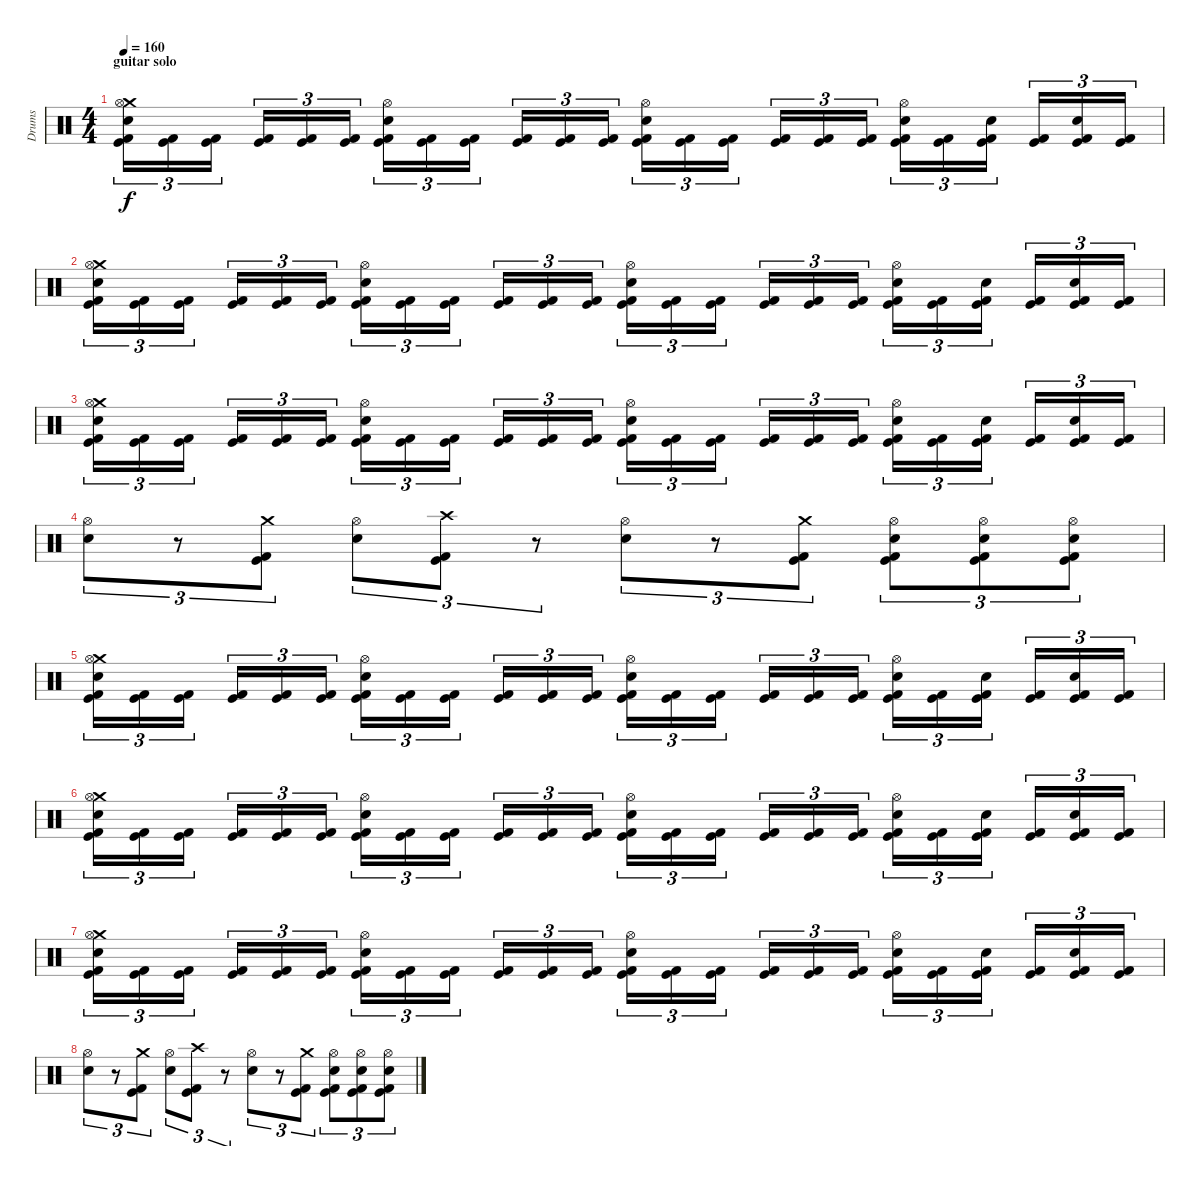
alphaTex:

\track ("Drums" "Drums") {instrument percussion}
\staff {score}
\articulation defaults
\ts (4 4)
\section ("" "guitar solo")
\tempo 160
\clef neutral
\ks c
("Crash medium (hit)" "Hi-Hat (open)" "Electric Snare (hit)" "Kick (hit)" "Kick (hit) 2").16{tu (3 2) dy f} ("Kick (hit)" "Kick (hit) 2").16{tu (3 2)} ("Kick (hit)" "Kick (hit) 2").16{tu (3 2)} ("Kick (hit)" "Kick (hit) 2").16{tu (3 2)} ("Kick (hit)" "Kick (hit) 2").16{tu (3 2)} ("Kick (hit)" "Kick (hit) 2").16{tu (3 2)} ("Hi-Hat (open)" "Electric Snare (hit)" "Kick (hit)" "Kick (hit) 2").16{tu (3 2)} ("Kick (hit)" "Kick (hit) 2").16{tu (3 2)} ("Kick (hit)" "Kick (hit) 2").16{tu (3 2)} ("Kick (hit)" "Kick (hit) 2").16{tu (3 2)} ("Kick (hit)" "Kick (hit) 2").16{tu (3 2)} ("Kick (hit)" "Kick (hit) 2").16{tu (3 2)} ("Hi-Hat (open)" "Electric Snare (hit)" "Kick (hit)" "Kick (hit) 2").16{tu (3 2)} ("Kick (hit)" "Kick (hit) 2").16{tu (3 2)} ("Kick (hit)" "Kick (hit) 2").16{tu (3 2)} ("Kick (hit)" "Kick (hit) 2").16{tu (3 2)} ("Kick (hit)" "Kick (hit) 2").16{tu (3 2)} ("Kick (hit)" "Kick (hit) 2").16{tu (3 2)} ("Hi-Hat (open)" "Electric Snare (hit)" "Kick (hit)" "Kick (hit) 2").16{tu (3 2)} ("Kick (hit)" "Kick (hit) 2").16{tu (3 2)} ("Electric Snare (hit)" "Kick (hit)" "Kick (hit) 2").16{tu (3 2)} ("Kick (hit)" "Kick (hit) 2").16{tu (3 2)} ("Electric Snare (hit)" "Kick (hit)" "Kick (hit) 2").16{tu (3 2)} ("Kick (hit)" "Kick (hit) 2").16{tu (3 2)} |
("Crash medium (hit)" "Hi-Hat (open)" "Electric Snare (hit)" "Kick (hit)" "Kick (hit) 2").16{tu (3 2)} ("Kick (hit)" "Kick (hit) 2").16{tu (3 2)} ("Kick (hit)" "Kick (hit) 2").16{tu (3 2)} ("Kick (hit)" "Kick (hit) 2").16{tu (3 2)} ("Kick (hit)" "Kick (hit) 2").16{tu (3 2)} ("Kick (hit)" "Kick (hit) 2").16{tu (3 2)} ("Hi-Hat (open)" "Electric Snare (hit)" "Kick (hit)" "Kick (hit) 2").16{tu (3 2)} ("Kick (hit)" "Kick (hit) 2").16{tu (3 2)} ("Kick (hit)" "Kick (hit) 2").16{tu (3 2)} ("Kick (hit)" "Kick (hit) 2").16{tu (3 2)} ("Kick (hit)" "Kick (hit) 2").16{tu (3 2)} ("Kick (hit)" "Kick (hit) 2").16{tu (3 2)} ("Hi-Hat (open)" "Electric Snare (hit)" "Kick (hit)" "Kick (hit) 2").16{tu (3 2)} ("Kick (hit)" "Kick (hit) 2").16{tu (3 2)} ("Kick (hit)" "Kick (hit) 2").16{tu (3 2)} ("Kick (hit)" "Kick (hit) 2").16{tu (3 2)} ("Kick (hit)" "Kick (hit) 2").16{tu (3 2)} ("Kick (hit)" "Kick (hit) 2").16{tu (3 2)} ("Hi-Hat (open)" "Electric Snare (hit)" "Kick (hit)" "Kick (hit) 2").16{tu (3 2)} ("Kick (hit)" "Kick (hit) 2").16{tu (3 2)} ("Electric Snare (hit)" "Kick (hit)" "Kick (hit) 2").16{tu (3 2)} ("Kick (hit)" "Kick (hit) 2").16{tu (3 2)} ("Electric Snare (hit)" "Kick (hit)" "Kick (hit) 2").16{tu (3 2)} ("Kick (hit)" "Kick (hit) 2").16{tu (3 2)} |
("Crash medium (hit)" "Hi-Hat (open)" "Electric Snare (hit)" "Kick (hit)" "Kick (hit) 2").16{tu (3 2)} ("Kick (hit)" "Kick (hit) 2").16{tu (3 2)} ("Kick (hit)" "Kick (hit) 2").16{tu (3 2)} ("Kick (hit)" "Kick (hit) 2").16{tu (3 2)} ("Kick (hit)" "Kick (hit) 2").16{tu (3 2)} ("Kick (hit)" "Kick (hit) 2").16{tu (3 2)} ("Hi-Hat (open)" "Electric Snare (hit)" "Kick (hit)" "Kick (hit) 2").16{tu (3 2)} ("Kick (hit)" "Kick (hit) 2").16{tu (3 2)} ("Kick (hit)" "Kick (hit) 2").16{tu (3 2)} ("Kick (hit)" "Kick (hit) 2").16{tu (3 2)} ("Kick (hit)" "Kick (hit) 2").16{tu (3 2)} ("Kick (hit)" "Kick (hit) 2").16{tu (3 2)} ("Hi-Hat (open)" "Electric Snare (hit)" "Kick (hit)" "Kick (hit) 2").16{tu (3 2)} ("Kick (hit)" "Kick (hit) 2").16{tu (3 2)} ("Kick (hit)" "Kick (hit) 2").16{tu (3 2)} ("Kick (hit)" "Kick (hit) 2").16{tu (3 2)} ("Kick (hit)" "Kick (hit) 2").16{tu (3 2)} ("Kick (hit)" "Kick (hit) 2").16{tu (3 2)} ("Hi-Hat (open)" "Electric Snare (hit)" "Kick (hit)" "Kick (hit) 2").16{tu (3 2)} ("Kick (hit)" "Kick (hit) 2").16{tu (3 2)} ("Electric Snare (hit)" "Kick (hit)" "Kick (hit) 2").16{tu (3 2)} ("Kick (hit)" "Kick (hit) 2").16{tu (3 2)} ("Electric Snare (hit)" "Kick (hit)" "Kick (hit) 2").16{tu (3 2)} ("Kick (hit)" "Kick (hit) 2").16{tu (3 2)} |
("Hi-Hat (open)" "Electric Snare (hit)").8{tu (3 2)} r.8{tu (3 2)} ("Crash medium (hit)" "Kick (hit)" "Kick (hit) 2").8{tu (3 2)} ("Hi-Hat (open)" "Electric Snare (hit)").8{tu (3 2)} ("Crash high (hit)" "Kick (hit)" "Kick (hit) 2").8{tu (3 2)} r.8{tu (3 2)} ("Hi-Hat (open)" "Electric Snare (hit)").8{tu (3 2)} r.8{tu (3 2)} ("Crash medium (hit)" "Kick (hit)" "Kick (hit) 2").8{tu (3 2)} ("Hi-Hat (open)" "Electric Snare (hit)" "Kick (hit)" "Kick (hit) 2").8{tu (3 2)} ("Hi-Hat (open)" "Electric Snare (hit)" "Kick (hit)" "Kick (hit) 2").8{tu (3 2)} ("Hi-Hat (open)" "Electric Snare (hit)" "Kick (hit)" "Kick (hit) 2").8{tu (3 2)} |
("Crash medium (hit)" "Hi-Hat (open)" "Electric Snare (hit)" "Kick (hit)" "Kick (hit) 2").16{tu (3 2)} ("Kick (hit)" "Kick (hit) 2").16{tu (3 2)} ("Kick (hit)" "Kick (hit) 2").16{tu (3 2)} ("Kick (hit)" "Kick (hit) 2").16{tu (3 2)} ("Kick (hit)" "Kick (hit) 2").16{tu (3 2)} ("Kick (hit)" "Kick (hit) 2").16{tu (3 2)} ("Hi-Hat (open)" "Electric Snare (hit)" "Kick (hit)" "Kick (hit) 2").16{tu (3 2)} ("Kick (hit)" "Kick (hit) 2").16{tu (3 2)} ("Kick (hit)" "Kick (hit) 2").16{tu (3 2)} ("Kick (hit)" "Kick (hit) 2").16{tu (3 2)} ("Kick (hit)" "Kick (hit) 2").16{tu (3 2)} ("Kick (hit)" "Kick (hit) 2").16{tu (3 2)} ("Hi-Hat (open)" "Electric Snare (hit)" "Kick (hit)" "Kick (hit) 2").16{tu (3 2)} ("Kick (hit)" "Kick (hit) 2").16{tu (3 2)} ("Kick (hit)" "Kick (hit) 2").16{tu (3 2)} ("Kick (hit)" "Kick (hit) 2").16{tu (3 2)} ("Kick (hit)" "Kick (hit) 2").16{tu (3 2)} ("Kick (hit)" "Kick (hit) 2").16{tu (3 2)} ("Hi-Hat (open)" "Electric Snare (hit)" "Kick (hit)" "Kick (hit) 2").16{tu (3 2)} ("Kick (hit)" "Kick (hit) 2").16{tu (3 2)} ("Electric Snare (hit)" "Kick (hit)" "Kick (hit) 2").16{tu (3 2)} ("Kick (hit)" "Kick (hit) 2").16{tu (3 2)} ("Electric Snare (hit)" "Kick (hit)" "Kick (hit) 2").16{tu (3 2)} ("Kick (hit)" "Kick (hit) 2").16{tu (3 2)} |
("Crash medium (hit)" "Hi-Hat (open)" "Electric Snare (hit)" "Kick (hit)" "Kick (hit) 2").16{tu (3 2)} ("Kick (hit)" "Kick (hit) 2").16{tu (3 2)} ("Kick (hit)" "Kick (hit) 2").16{tu (3 2)} ("Kick (hit)" "Kick (hit) 2").16{tu (3 2)} ("Kick (hit)" "Kick (hit) 2").16{tu (3 2)} ("Kick (hit)" "Kick (hit) 2").16{tu (3 2)} ("Hi-Hat (open)" "Electric Snare (hit)" "Kick (hit)" "Kick (hit) 2").16{tu (3 2)} ("Kick (hit)" "Kick (hit) 2").16{tu (3 2)} ("Kick (hit)" "Kick (hit) 2").16{tu (3 2)} ("Kick (hit)" "Kick (hit) 2").16{tu (3 2)} ("Kick (hit)" "Kick (hit) 2").16{tu (3 2)} ("Kick (hit)" "Kick (hit) 2").16{tu (3 2)} ("Hi-Hat (open)" "Electric Snare (hit)" "Kick (hit)" "Kick (hit) 2").16{tu (3 2)} ("Kick (hit)" "Kick (hit) 2").16{tu (3 2)} ("Kick (hit)" "Kick (hit) 2").16{tu (3 2)} ("Kick (hit)" "Kick (hit) 2").16{tu (3 2)} ("Kick (hit)" "Kick (hit) 2").16{tu (3 2)} ("Kick (hit)" "Kick (hit) 2").16{tu (3 2)} ("Hi-Hat (open)" "Electric Snare (hit)" "Kick (hit)" "Kick (hit) 2").16{tu (3 2)} ("Kick (hit)" "Kick (hit) 2").16{tu (3 2)} ("Electric Snare (hit)" "Kick (hit)" "Kick (hit) 2").16{tu (3 2)} ("Kick (hit)" "Kick (hit) 2").16{tu (3 2)} ("Electric Snare (hit)" "Kick (hit)" "Kick (hit) 2").16{tu (3 2)} ("Kick (hit)" "Kick (hit) 2").16{tu (3 2)} |
("Crash medium (hit)" "Hi-Hat (open)" "Electric Snare (hit)" "Kick (hit)" "Kick (hit) 2").16{tu (3 2)} ("Kick (hit)" "Kick (hit) 2").16{tu (3 2)} ("Kick (hit)" "Kick (hit) 2").16{tu (3 2)} ("Kick (hit)" "Kick (hit) 2").16{tu (3 2)} ("Kick (hit)" "Kick (hit) 2").16{tu (3 2)} ("Kick (hit)" "Kick (hit) 2").16{tu (3 2)} ("Hi-Hat (open)" "Electric Snare (hit)" "Kick (hit)" "Kick (hit) 2").16{tu (3 2)} ("Kick (hit)" "Kick (hit) 2").16{tu (3 2)} ("Kick (hit)" "Kick (hit) 2").16{tu (3 2)} ("Kick (hit)" "Kick (hit) 2").16{tu (3 2)} ("Kick (hit)" "Kick (hit) 2").16{tu (3 2)} ("Kick (hit)" "Kick (hit) 2").16{tu (3 2)} ("Hi-Hat (open)" "Electric Snare (hit)" "Kick (hit)" "Kick (hit) 2").16{tu (3 2)} ("Kick (hit)" "Kick (hit) 2").16{tu (3 2)} ("Kick (hit)" "Kick (hit) 2").16{tu (3 2)} ("Kick (hit)" "Kick (hit) 2").16{tu (3 2)} ("Kick (hit)" "Kick (hit) 2").16{tu (3 2)} ("Kick (hit)" "Kick (hit) 2").16{tu (3 2)} ("Hi-Hat (open)" "Electric Snare (hit)" "Kick (hit)" "Kick (hit) 2").16{tu (3 2)} ("Kick (hit)" "Kick (hit) 2").16{tu (3 2)} ("Electric Snare (hit)" "Kick (hit)" "Kick (hit) 2").16{tu (3 2)} ("Kick (hit)" "Kick (hit) 2").16{tu (3 2)} ("Electric Snare (hit)" "Kick (hit)" "Kick (hit) 2").16{tu (3 2)} ("Kick (hit)" "Kick (hit) 2").16{tu (3 2)} |
("Hi-Hat (open)" "Electric Snare (hit)").8{tu (3 2)} r.8{tu (3 2)} ("Crash medium (hit)" "Kick (hit)" "Kick (hit) 2").8{tu (3 2)} ("Hi-Hat (open)" "Electric Snare (hit)").8{tu (3 2)} ("Crash high (hit)" "Kick (hit)" "Kick (hit) 2").8{tu (3 2)} r.8{tu (3 2)} ("Hi-Hat (open)" "Electric Snare (hit)").8{tu (3 2)} r.8{tu (3 2)} ("Crash medium (hit)" "Kick (hit)" "Kick (hit) 2").8{tu (3 2)} ("Hi-Hat (open)" "Electric Snare (hit)" "Kick (hit)" "Kick (hit) 2").8{tu (3 2)} ("Hi-Hat (open)" "Electric Snare (hit)" "Kick (hit)" "Kick (hit) 2").8{tu (3 2)} ("Hi-Hat (open)" "Electric Snare (hit)" "Kick (hit)" "Kick (hit) 2").8{tu (3 2)}
